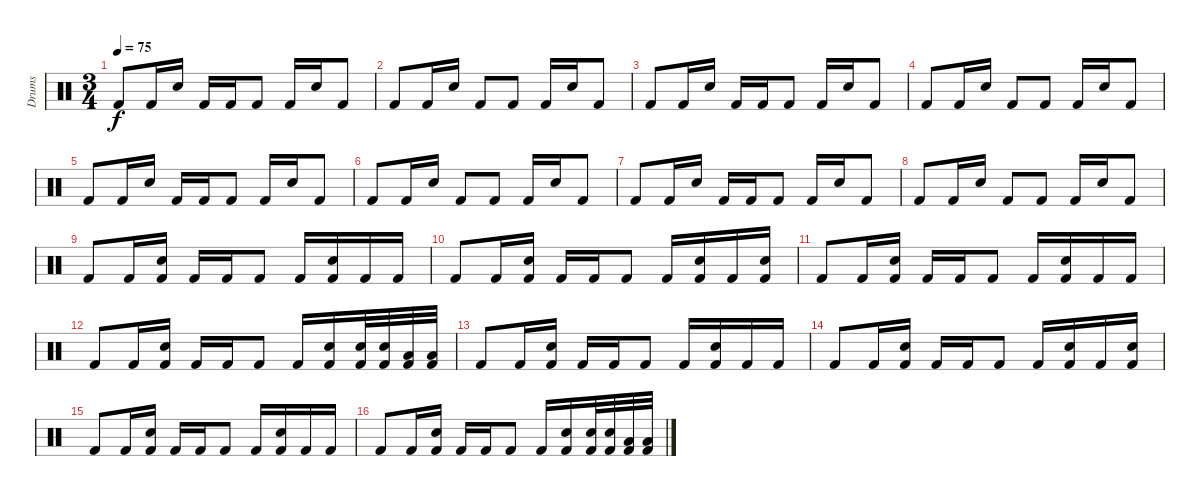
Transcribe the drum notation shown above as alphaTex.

\track ("Drums" "Drums") {instrument percussion}
\staff {score}
\articulation defaults
\ts (3 4)
\tempo 75
\clef neutral
\ks c "Kick (hit) 2".8{dy f} "Kick (hit) 2".16 "Snare (hit) 2".16 "Kick (hit) 2".16 "Kick (hit) 2".16 "Kick (hit) 2".8 "Kick (hit) 2".16 "Snare (hit) 2".16 "Kick (hit) 2".8
|
"Kick (hit) 2".8 "Kick (hit) 2".16 "Snare (hit) 2".16 "Kick (hit) 2".8 "Kick (hit) 2".8 "Kick (hit) 2".16 "Snare (hit) 2".16 "Kick (hit) 2".8 |
"Kick (hit) 2".8 "Kick (hit) 2".16 "Snare (hit) 2".16 "Kick (hit) 2".16 "Kick (hit) 2".16 "Kick (hit) 2".8 "Kick (hit) 2".16 "Snare (hit) 2".16 "Kick (hit) 2".8 |
"Kick (hit) 2".8 "Kick (hit) 2".16 "Snare (hit) 2".16 "Kick (hit) 2".8 "Kick (hit) 2".8 "Kick (hit) 2".16 "Snare (hit) 2".16 "Kick (hit) 2".8 |
"Kick (hit) 2".8 "Kick (hit) 2".16 "Snare (hit) 2".16 "Kick (hit) 2".16 "Kick (hit) 2".16 "Kick (hit) 2".8 "Kick (hit) 2".16 "Snare (hit) 2".16 "Kick (hit) 2".8 |
"Kick (hit) 2".8 "Kick (hit) 2".16 "Snare (hit) 2".16 "Kick (hit) 2".8 "Kick (hit) 2".8 "Kick (hit) 2".16 "Snare (hit) 2".16 "Kick (hit) 2".8 |
"Kick (hit) 2".8 "Kick (hit) 2".16 "Snare (hit) 2".16 "Kick (hit) 2".16 "Kick (hit) 2".16 "Kick (hit) 2".8 "Kick (hit) 2".16 "Snare (hit) 2".16 "Kick (hit) 2".8 |
"Kick (hit) 2".8 "Kick (hit) 2".16 "Snare (hit) 2".16 "Kick (hit) 2".8 "Kick (hit) 2".8 "Kick (hit) 2".16 "Snare (hit) 2".16 "Kick (hit) 2".8 |
"Kick (hit) 2".8 "Kick (hit) 2".16 ("Snare (hit) 2" "Kick (hit) 2").16 "Kick (hit) 2".16 "Kick (hit) 2".16 "Kick (hit) 2".8 "Kick (hit) 2".16 ("Snare (hit) 2" "Kick (hit) 2").16 "Kick (hit) 2".16 "Kick (hit) 2".16 |
"Kick (hit) 2".8 "Kick (hit) 2".16 ("Snare (hit) 2" "Kick (hit) 2").16 "Kick (hit) 2".16 "Kick (hit) 2".16 "Kick (hit) 2".8 "Kick (hit) 2".16 ("Snare (hit) 2" "Kick (hit) 2").16 "Kick (hit) 2".16 ("Snare (hit) 2" "Kick (hit) 2").16 |
"Kick (hit) 2".8 "Kick (hit) 2".16 ("Snare (hit) 2" "Kick (hit) 2").16 "Kick (hit) 2".16 "Kick (hit) 2".16 "Kick (hit) 2".8 "Kick (hit) 2".16 ("Snare (hit) 2" "Kick (hit) 2").16 "Kick (hit) 2".16 "Kick (hit) 2".16 |
"Kick (hit) 2".8 "Kick (hit) 2".16 ("Snare (hit) 2" "Kick (hit) 2").16 "Kick (hit) 2".16 "Kick (hit) 2".16 "Kick (hit) 2".8 "Kick (hit) 2".16 ("Snare (hit) 2" "Kick (hit) 2").16 ("Snare (hit) 2" "Kick (hit) 2").32 ("Snare (hit) 2" "Kick (hit) 2").32 ("Low Tom (hit)" "Kick (hit) 2").32 ("Low Tom (hit)" "Kick (hit) 2").32 |
"Kick (hit) 2".8 "Kick (hit) 2".16 ("Snare (hit) 2" "Kick (hit) 2").16 "Kick (hit) 2".16 "Kick (hit) 2".16 "Kick (hit) 2".8 "Kick (hit) 2".16 ("Snare (hit) 2" "Kick (hit) 2").16 "Kick (hit) 2".16 "Kick (hit) 2".16 |
"Kick (hit) 2".8 "Kick (hit) 2".16 ("Snare (hit) 2" "Kick (hit) 2").16 "Kick (hit) 2".16 "Kick (hit) 2".16 "Kick (hit) 2".8 "Kick (hit) 2".16 ("Snare (hit) 2" "Kick (hit) 2").16 "Kick (hit) 2".16 ("Snare (hit) 2" "Kick (hit) 2").16 |
"Kick (hit) 2".8 "Kick (hit) 2".16 ("Snare (hit) 2" "Kick (hit) 2").16 "Kick (hit) 2".16 "Kick (hit) 2".16 "Kick (hit) 2".8 "Kick (hit) 2".16 ("Snare (hit) 2" "Kick (hit) 2").16 "Kick (hit) 2".16 "Kick (hit) 2".16 |
"Kick (hit) 2".8 "Kick (hit) 2".16 ("Snare (hit) 2" "Kick (hit) 2").16 "Kick (hit) 2".16 "Kick (hit) 2".16 "Kick (hit) 2".8 "Kick (hit) 2".16 ("Snare (hit) 2" "Kick (hit) 2").16 ("Snare (hit) 2" "Kick (hit) 2").32 ("Snare (hit) 2" "Kick (hit) 2").32 ("Low Tom (hit)" "Kick (hit) 2").32 ("Low Tom (hit)" "Kick (hit) 2").32
